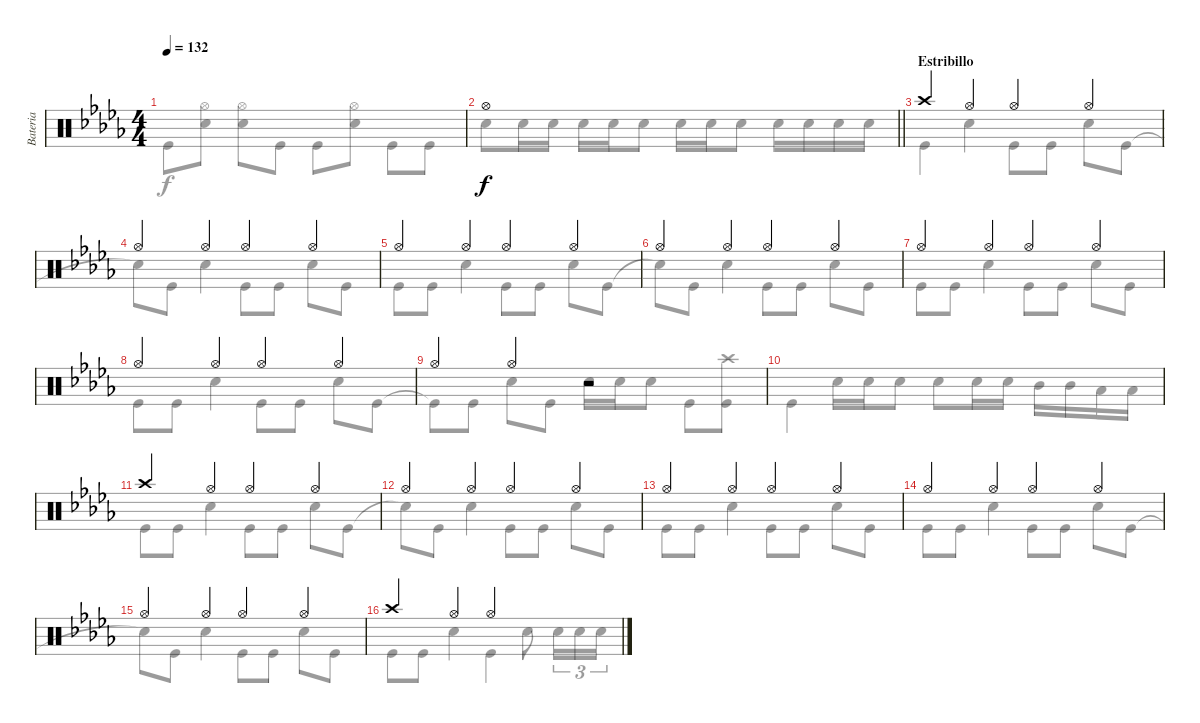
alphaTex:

\track ("Bateria" "Bateria") {instrument percussion}
\staff {score}
\articulation defaults
\voice
\ts (4 4)
\tempo 132
\clef neutral
\ks db
|
\barLineRight lightlight "Hi-Hat (open)".1
|
\section ("" "Estribillo")
"Crash high (hit)".4 "Hi-Hat (open)".4 "Hi-Hat (open)".4 "Hi-Hat (open)".4 |
"Hi-Hat (open)".4 "Hi-Hat (open)".4 "Hi-Hat (open)".4 "Hi-Hat (open)".4 |
"Hi-Hat (open)".4 "Hi-Hat (open)".4 "Hi-Hat (open)".4 "Hi-Hat (open)".4 |
"Hi-Hat (open)".4 "Hi-Hat (open)".4 "Hi-Hat (open)".4 "Hi-Hat (open)".4 |
"Hi-Hat (open)".4 "Hi-Hat (open)".4 "Hi-Hat (open)".4 "Hi-Hat (open)".4 |
"Hi-Hat (open)".4 "Hi-Hat (open)".4 "Hi-Hat (open)".4 "Hi-Hat (open)".4 |
"Hi-Hat (open)".4 "Hi-Hat (open)".4 r.2 |
|
"Crash high (hit)".4 "Hi-Hat (open)".4 "Hi-Hat (open)".4 "Hi-Hat (open)".4 |
"Hi-Hat (open)".4 "Hi-Hat (open)".4 "Hi-Hat (open)".4 "Hi-Hat (open)".4 |
"Hi-Hat (open)".4 "Hi-Hat (open)".4 "Hi-Hat (open)".4 "Hi-Hat (open)".4 |
"Hi-Hat (open)".4 "Hi-Hat (open)".4 "Hi-Hat (open)".4 "Hi-Hat (open)".4 |
"Hi-Hat (open)".4 "Hi-Hat (open)".4 "Hi-Hat (open)".4 "Hi-Hat (open)".4 |
"Crash high (hit)".4 "Hi-Hat (open)".4 "Hi-Hat (open)".2
\voice
\clef neutral
\ottava regular
\simile none
\ks db "Kick (hit)".8{dy f}
("Hi-Hat (open)" "Snare (hit) 2").8 ("Hi-Hat (open)" "Snare (hit) 2").8 "Kick (hit)".8 "Kick (hit)".8 ("Hi-Hat (open)" "Snare (hit) 2").8 "Kick (hit)".8 "Kick (hit)".8 |
\barLineRight lightlight "Snare (hit) 2".8 "Snare (hit) 2".16 "Snare (hit) 2".16 "Snare (hit) 2".16 "Snare (hit) 2".16 "Snare (hit) 2".8 "Snare (hit) 2".16 "Snare (hit) 2".16 "Snare (hit) 2".8 "Snare (hit) 2".16 "Snare (hit) 2".16 "Snare (hit) 2".16 "Snare (hit) 2".16
|
"Kick (hit)".4 "Snare (hit) 2".4 "Kick (hit)".8 "Kick (hit)".8 "Snare (hit) 2".8 "Kick (hit)".8 |
"Snare (hit)"{t}.8 "Kick (hit)".8 "Snare (hit) 2".4 "Kick (hit)".8 "Kick (hit)".8 "Snare (hit) 2".8 "Kick (hit)".8 |
"Kick (hit)".8 "Kick (hit)".8 "Snare (hit) 2".4 "Kick (hit)".8 "Kick (hit)".8 "Snare (hit) 2".8 "Kick (hit)".8 |
"Snare (hit) 2"{t}.8 "Kick (hit)".8 "Snare (hit) 2".4 "Kick (hit)".8 "Kick (hit)".8 "Snare (hit) 2".8 "Kick (hit)".8 |
"Kick (hit)".8 "Kick (hit)".8 "Snare (hit) 2".4 "Kick (hit)".8 "Kick (hit)".8 "Snare (hit) 2".8 "Kick (hit)".8 |
"Kick (hit)".8 "Kick (hit)".8 "Snare (hit) 2".4 "Kick (hit)".8 "Kick (hit)".8 "Snare (hit) 2".8 "Kick (hit)".8 |
"Kick (hit)"{t}.8 "Kick (hit)".8 "Snare (hit) 2".8 "Kick (hit)".8 "Snare (hit) 2".16 "Snare (hit) 2".16 "Snare (hit) 2".8 "Kick (hit)".8 ("Crash high (hit)" "Kick (hit)").8 |
"Kick (hit)".4 "Snare (hit) 2".16 "Snare (hit) 2".16 "Snare (hit) 2".8 "Snare (hit) 2".8 "Snare (hit) 2".16 "Snare (hit) 2".16 "Mid Tom (hit)".16 "Mid Tom (hit)".16 "Low Tom (hit)".16 "Low Tom (hit)".16 |
"Kick (hit)".8 "Kick (hit)".8 "Snare (hit) 2".4 "Kick (hit)".8 "Kick (hit)".8 "Snare (hit) 2".8 "Kick (hit)".8 |
"Snare (hit)"{t}.8 "Kick (hit)".8 "Snare (hit) 2".4 "Kick (hit)".8 "Kick (hit)".8 "Snare (hit) 2".8 "Kick (hit)".8 |
"Kick (hit)".8 "Kick (hit)".8 "Snare (hit) 2".4 "Kick (hit)".8 "Kick (hit)".8 "Snare (hit) 2".8 "Kick (hit)".8 |
"Kick (hit)".8 "Kick (hit)".8 "Snare (hit) 2".4 "Kick (hit)".8 "Kick (hit)".8 "Snare (hit) 2".8 "Kick (hit)".8 |
"Snare (hit)"{t}.8 "Kick (hit)".8 "Snare (hit) 2".4 "Kick (hit)".8 "Kick (hit)".8 "Snare (hit) 2".8 "Kick (hit)".8 |
"Kick (hit)".8 "Kick (hit)".8 "Snare (hit) 2".4 "Kick (hit)".4 "Snare (hit) 2".8 "Snare (hit) 2".16{tu (3 2)} "Snare (hit) 2".16{tu (3 2)} "Snare (hit) 2".16{tu (3 2)}
